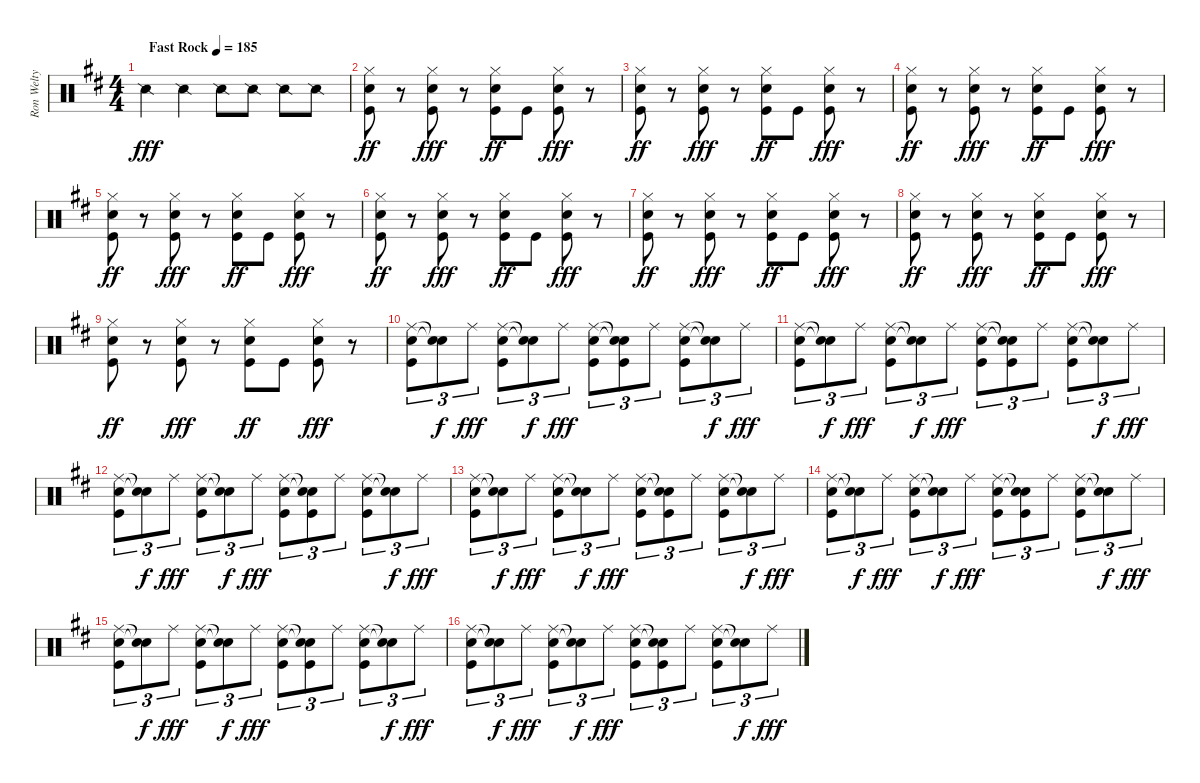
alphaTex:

\track ("Ron Welty" "Ron Welty") {instrument percussion}
\staff {score}
\articulation defaults
\ts (4 4)
\tempo (185 "Fast Rock")
\clef neutral
\ks d "Snare (side stick) 2".4{dy fff} "Snare (side stick) 2".4 "Snare (side stick) 2".8 "Snare (side stick) 2".8 "Snare (side stick) 2".8 "Snare (side stick) 2".8
|
("Hi-Hat (closed)" "Snare (hit) 2" "Kick (hit)").8{dy ff} r.8 ("Hi-Hat (closed)" "Snare (hit) 2" "Kick (hit)").8{dy fff} r.8 ("Hi-Hat (closed)" "Snare (hit) 2" "Kick (hit)").8{dy ff} "Kick (hit)".8 ("Hi-Hat (closed)" "Snare (hit) 2" "Kick (hit)").8{dy fff} r.8 |
("Hi-Hat (closed)" "Snare (hit) 2" "Kick (hit)").8{dy ff} r.8 ("Hi-Hat (closed)" "Snare (hit) 2" "Kick (hit)").8{dy fff} r.8 ("Hi-Hat (closed)" "Snare (hit) 2" "Kick (hit)").8{dy ff} "Kick (hit)".8 ("Hi-Hat (closed)" "Snare (hit) 2" "Kick (hit)").8{dy fff} r.8 |
("Hi-Hat (closed)" "Snare (hit) 2" "Kick (hit)").8{dy ff} r.8 ("Hi-Hat (closed)" "Snare (hit) 2" "Kick (hit)").8{dy fff} r.8 ("Hi-Hat (closed)" "Snare (hit) 2" "Kick (hit)").8{dy ff} "Kick (hit)".8 ("Hi-Hat (closed)" "Snare (hit) 2" "Kick (hit)").8{dy fff} r.8 |
("Hi-Hat (closed)" "Snare (hit) 2" "Kick (hit)").8{dy ff} r.8 ("Hi-Hat (closed)" "Snare (hit) 2" "Kick (hit)").8{dy fff} r.8 ("Hi-Hat (closed)" "Snare (hit) 2" "Kick (hit)").8{dy ff} "Kick (hit)".8 ("Hi-Hat (closed)" "Snare (hit) 2" "Kick (hit)").8{dy fff} r.8 |
("Hi-Hat (closed)" "Snare (hit) 2" "Kick (hit)").8{dy ff} r.8 ("Hi-Hat (closed)" "Snare (hit) 2" "Kick (hit)").8{dy fff} r.8 ("Hi-Hat (closed)" "Snare (hit) 2" "Kick (hit)").8{dy ff} "Kick (hit)".8 ("Hi-Hat (closed)" "Snare (hit) 2" "Kick (hit)").8{dy fff} r.8 |
("Hi-Hat (closed)" "Snare (hit) 2" "Kick (hit)").8{dy ff} r.8 ("Hi-Hat (closed)" "Snare (hit) 2" "Kick (hit)").8{dy fff} r.8 ("Hi-Hat (closed)" "Snare (hit) 2" "Kick (hit)").8{dy ff} "Kick (hit)".8 ("Hi-Hat (closed)" "Snare (hit) 2" "Kick (hit)").8{dy fff} r.8 |
("Hi-Hat (closed)" "Snare (hit) 2" "Kick (hit)").8{dy ff} r.8 ("Hi-Hat (closed)" "Snare (hit) 2" "Kick (hit)").8{dy fff} r.8 ("Hi-Hat (closed)" "Snare (hit) 2" "Kick (hit)").8{dy ff} "Kick (hit)".8 ("Hi-Hat (closed)" "Snare (hit) 2" "Kick (hit)").8{dy fff} r.8 |
("Hi-Hat (closed)" "Snare (hit) 2" "Kick (hit)").8{dy ff} r.8 ("Hi-Hat (closed)" "Snare (hit) 2" "Kick (hit)").8{dy fff} r.8 ("Hi-Hat (closed)" "Snare (hit) 2" "Kick (hit)").8{dy ff} "Kick (hit)".8 ("Hi-Hat (closed)" "Snare (hit) 2" "Kick (hit)").8{dy fff} r.8 |
("Ride (middle)" "Snare (hit) 2" "Kick (hit)").8{tu (3 2)} ("Snare (hit)"{t} "Snare (hit)"{t}).8{tu (3 2) dy f} "Ride (middle)".8{tu (3 2) dy fff} ("Ride (middle)" "Snare (hit) 2" "Kick (hit)").8{tu (3 2)} ("Snare (hit)"{t} "Snare (hit)"{t}).8{tu (3 2) dy f} "Ride (middle)".8{tu (3 2) dy fff} ("Ride (middle)" "Snare (hit) 2" "Kick (hit)").8{tu (3 2)} ("Snare (hit)"{t} "Snare (hit)"{t} "Kick (hit)").8{tu (3 2)} "Ride (middle)".8{tu (3 2)} ("Ride (middle)" "Snare (hit) 2" "Kick (hit)").8{tu (3 2)} ("Snare (hit)"{t} "Snare (hit)"{t}).8{tu (3 2) dy f} "Ride (middle)".8{tu (3 2) dy fff} |
("Ride (middle)" "Snare (hit) 2" "Kick (hit)").8{tu (3 2)} ("Snare (hit)"{t} "Snare (hit)"{t}).8{tu (3 2) dy f} "Ride (middle)".8{tu (3 2) dy fff} ("Ride (middle)" "Snare (hit) 2" "Kick (hit)").8{tu (3 2)} ("Snare (hit)"{t} "Snare (hit)"{t}).8{tu (3 2) dy f} "Ride (middle)".8{tu (3 2) dy fff} ("Ride (middle)" "Snare (hit) 2" "Kick (hit)").8{tu (3 2)} ("Snare (hit)"{t} "Snare (hit)"{t} "Kick (hit)").8{tu (3 2)} "Ride (middle)".8{tu (3 2)} ("Ride (middle)" "Snare (hit) 2" "Kick (hit)").8{tu (3 2)} ("Snare (hit)"{t} "Snare (hit)"{t}).8{tu (3 2) dy f} "Ride (middle)".8{tu (3 2) dy fff} |
("Ride (middle)" "Snare (hit) 2" "Kick (hit)").8{tu (3 2)} ("Snare (hit)"{t} "Snare (hit)"{t}).8{tu (3 2) dy f} "Ride (middle)".8{tu (3 2) dy fff} ("Ride (middle)" "Snare (hit) 2" "Kick (hit)").8{tu (3 2)} ("Snare (hit)"{t} "Snare (hit)"{t}).8{tu (3 2) dy f} "Ride (middle)".8{tu (3 2) dy fff} ("Ride (middle)" "Snare (hit) 2" "Kick (hit)").8{tu (3 2)} ("Snare (hit)"{t} "Snare (hit)"{t} "Kick (hit)").8{tu (3 2)} "Ride (middle)".8{tu (3 2)} ("Ride (middle)" "Snare (hit) 2" "Kick (hit)").8{tu (3 2)} ("Snare (hit)"{t} "Snare (hit)"{t}).8{tu (3 2) dy f} "Ride (middle)".8{tu (3 2) dy fff} |
("Ride (middle)" "Snare (hit) 2" "Kick (hit)").8{tu (3 2)} ("Snare (hit)"{t} "Snare (hit)"{t}).8{tu (3 2) dy f} "Ride (middle)".8{tu (3 2) dy fff} ("Ride (middle)" "Snare (hit) 2" "Kick (hit)").8{tu (3 2)} ("Snare (hit)"{t} "Snare (hit)"{t}).8{tu (3 2) dy f} "Ride (middle)".8{tu (3 2) dy fff} ("Ride (middle)" "Snare (hit) 2" "Kick (hit)").8{tu (3 2)} ("Snare (hit)"{t} "Snare (hit)"{t} "Kick (hit)").8{tu (3 2)} "Ride (middle)".8{tu (3 2)} ("Ride (middle)" "Snare (hit) 2" "Kick (hit)").8{tu (3 2)} ("Snare (hit)"{t} "Snare (hit)"{t}).8{tu (3 2) dy f} "Ride (middle)".8{tu (3 2) dy fff} |
("Ride (middle)" "Snare (hit) 2" "Kick (hit)").8{tu (3 2)} ("Snare (hit)"{t} "Snare (hit)"{t}).8{tu (3 2) dy f} "Ride (middle)".8{tu (3 2) dy fff} ("Ride (middle)" "Snare (hit) 2" "Kick (hit)").8{tu (3 2)} ("Snare (hit)"{t} "Snare (hit)"{t}).8{tu (3 2) dy f} "Ride (middle)".8{tu (3 2) dy fff} ("Ride (middle)" "Snare (hit) 2" "Kick (hit)").8{tu (3 2)} ("Snare (hit)"{t} "Snare (hit)"{t} "Kick (hit)").8{tu (3 2)} "Ride (middle)".8{tu (3 2)} ("Ride (middle)" "Snare (hit) 2" "Kick (hit)").8{tu (3 2)} ("Snare (hit)"{t} "Snare (hit)"{t}).8{tu (3 2) dy f} "Ride (middle)".8{tu (3 2) dy fff} |
("Ride (middle)" "Snare (hit) 2" "Kick (hit)").8{tu (3 2)} ("Snare (hit)"{t} "Snare (hit)"{t}).8{tu (3 2) dy f} "Ride (middle)".8{tu (3 2) dy fff} ("Ride (middle)" "Snare (hit) 2" "Kick (hit)").8{tu (3 2)} ("Snare (hit)"{t} "Snare (hit)"{t}).8{tu (3 2) dy f} "Ride (middle)".8{tu (3 2) dy fff} ("Ride (middle)" "Snare (hit) 2" "Kick (hit)").8{tu (3 2)} ("Snare (hit)"{t} "Snare (hit)"{t} "Kick (hit)").8{tu (3 2)} "Ride (middle)".8{tu (3 2)} ("Ride (middle)" "Snare (hit) 2" "Kick (hit)").8{tu (3 2)} ("Snare (hit)"{t} "Snare (hit)"{t}).8{tu (3 2) dy f} "Ride (middle)".8{tu (3 2) dy fff} |
("Ride (middle)" "Snare (hit) 2" "Kick (hit)").8{tu (3 2)} ("Snare (hit)"{t} "Snare (hit)"{t}).8{tu (3 2) dy f} "Ride (middle)".8{tu (3 2) dy fff} ("Ride (middle)" "Snare (hit) 2" "Kick (hit)").8{tu (3 2)} ("Snare (hit)"{t} "Snare (hit)"{t}).8{tu (3 2) dy f} "Ride (middle)".8{tu (3 2) dy fff} ("Ride (middle)" "Snare (hit) 2" "Kick (hit)").8{tu (3 2)} ("Snare (hit)"{t} "Snare (hit)"{t} "Kick (hit)").8{tu (3 2)} "Ride (middle)".8{tu (3 2)} ("Ride (middle)" "Snare (hit) 2" "Kick (hit)").8{tu (3 2)} ("Snare (hit)"{t} "Snare (hit)"{t}).8{tu (3 2) dy f} "Ride (middle)".8{tu (3 2) dy fff}
